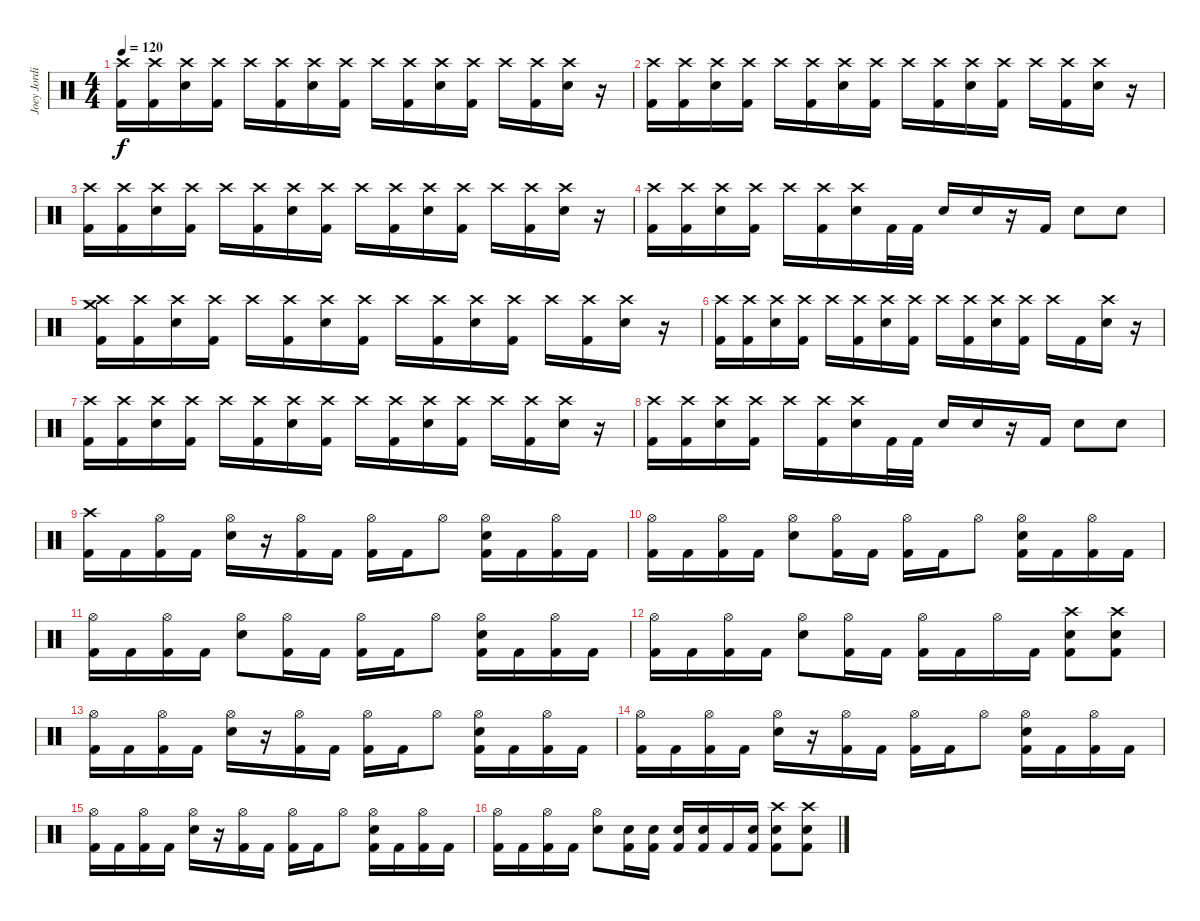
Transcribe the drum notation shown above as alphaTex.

\track ("Joey Jordison   #1" "Joey Jordi") {instrument percussion}
\staff {score}
\articulation defaults
\ts (4 4)
\tempo 120
\clef neutral
\ks c
("Crash high (hit)" "Kick (hit) 2").16{dy f} ("Crash high (hit)" "Kick (hit) 2").16 ("Crash high (hit)" "Electric Snare (hit)").16 ("Crash high (hit)" "Kick (hit) 2").16 "Crash high (hit)".16 ("Crash high (hit)" "Kick (hit) 2").16 ("Crash high (hit)" "Electric Snare (hit)").16 ("Crash high (hit)" "Kick (hit) 2").16 "Crash high (hit)".16 ("Crash high (hit)" "Kick (hit) 2").16 ("Crash high (hit)" "Electric Snare (hit)").16 ("Crash high (hit)" "Kick (hit) 2").16 "Crash high (hit)".16 ("Crash high (hit)" "Kick (hit) 2").16 ("Crash high (hit)" "Electric Snare (hit)").16 r.16 |
("Crash high (hit)" "Kick (hit) 2").16 ("Crash high (hit)" "Kick (hit) 2").16 ("Crash high (hit)" "Electric Snare (hit)").16 ("Crash high (hit)" "Kick (hit) 2").16 "Crash high (hit)".16 ("Crash high (hit)" "Kick (hit) 2").16 ("Crash high (hit)" "Electric Snare (hit)").16 ("Crash high (hit)" "Kick (hit) 2").16 "Crash high (hit)".16 ("Crash high (hit)" "Kick (hit) 2").16 ("Crash high (hit)" "Electric Snare (hit)").16 ("Crash high (hit)" "Kick (hit) 2").16 "Crash high (hit)".16 ("Crash high (hit)" "Kick (hit) 2").16 ("Crash high (hit)" "Electric Snare (hit)").16 r.16 |
("Crash high (hit)" "Kick (hit) 2").16 ("Crash high (hit)" "Kick (hit) 2").16 ("Crash high (hit)" "Electric Snare (hit)").16 ("Crash high (hit)" "Kick (hit) 2").16 "Crash high (hit)".16 ("Crash high (hit)" "Kick (hit) 2").16 ("Crash high (hit)" "Electric Snare (hit)").16 ("Crash high (hit)" "Kick (hit) 2").16 "Crash high (hit)".16 ("Crash high (hit)" "Kick (hit) 2").16 ("Crash high (hit)" "Electric Snare (hit)").16 ("Crash high (hit)" "Kick (hit) 2").16 "Crash high (hit)".16 ("Crash high (hit)" "Kick (hit) 2").16 ("Crash high (hit)" "Electric Snare (hit)").16 r.16 |
("Crash high (hit)" "Kick (hit) 2").16 ("Crash high (hit)" "Kick (hit) 2").16 ("Crash high (hit)" "Electric Snare (hit)").16 ("Crash high (hit)" "Kick (hit) 2").16 "Crash high (hit)".16 ("Crash high (hit)" "Kick (hit) 2").16 ("Crash high (hit)" "Electric Snare (hit)").16 "Kick (hit) 2".32 "Kick (hit) 2".32 "Electric Snare (hit)".16 "Electric Snare (hit)".16 r.16 "Kick (hit) 2".16 "Electric Snare (hit)".8 "Electric Snare (hit)".8 |
("Crash high (hit)" "Crash medium (hit)" "Kick (hit) 2").16 ("Crash high (hit)" "Kick (hit) 2").16 ("Crash high (hit)" "Electric Snare (hit)").16 ("Crash high (hit)" "Kick (hit) 2").16 "Crash high (hit)".16 ("Crash high (hit)" "Kick (hit) 2").16 ("Crash high (hit)" "Electric Snare (hit)").16 ("Crash high (hit)" "Kick (hit) 2").16 "Crash high (hit)".16 ("Crash high (hit)" "Kick (hit) 2").16 ("Crash high (hit)" "Electric Snare (hit)").16 ("Crash high (hit)" "Kick (hit) 2").16 "Crash high (hit)".16 ("Crash high (hit)" "Kick (hit) 2").16 ("Crash high (hit)" "Electric Snare (hit)").16 r.16 |
("Crash high (hit)" "Kick (hit) 2").16 ("Crash high (hit)" "Kick (hit) 2").16 ("Crash high (hit)" "Electric Snare (hit)").16 ("Crash high (hit)" "Kick (hit) 2").16 "Crash high (hit)".16 ("Crash high (hit)" "Kick (hit) 2").16 ("Crash high (hit)" "Electric Snare (hit)").16 ("Crash high (hit)" "Kick (hit) 2").16 "Crash high (hit)".16 ("Crash high (hit)" "Kick (hit) 2").16 ("Crash high (hit)" "Electric Snare (hit)").16 ("Crash high (hit)" "Kick (hit) 2").16 "Crash high (hit)".16 "Kick (hit) 2".16 ("Crash high (hit)" "Electric Snare (hit)").16 r.16 |
("Crash high (hit)" "Kick (hit) 2").16 ("Crash high (hit)" "Kick (hit) 2").16 ("Crash high (hit)" "Electric Snare (hit)").16 ("Crash high (hit)" "Kick (hit) 2").16 "Crash high (hit)".16 ("Crash high (hit)" "Kick (hit) 2").16 ("Crash high (hit)" "Electric Snare (hit)").16 ("Crash high (hit)" "Kick (hit) 2").16 "Crash high (hit)".16 ("Crash high (hit)" "Kick (hit) 2").16 ("Crash high (hit)" "Electric Snare (hit)").16 ("Crash high (hit)" "Kick (hit) 2").16 "Crash high (hit)".16 ("Crash high (hit)" "Kick (hit) 2").16 ("Crash high (hit)" "Electric Snare (hit)").16 r.16 |
("Crash high (hit)" "Kick (hit) 2").16 ("Crash high (hit)" "Kick (hit) 2").16 ("Crash high (hit)" "Electric Snare (hit)").16 ("Crash high (hit)" "Kick (hit) 2").16 "Crash high (hit)".16 ("Crash high (hit)" "Kick (hit) 2").16 ("Crash high (hit)" "Electric Snare (hit)").16 "Kick (hit) 2".32 "Kick (hit) 2".32 "Electric Snare (hit)".16 "Electric Snare (hit)".16 r.16 "Kick (hit) 2".16 "Electric Snare (hit)".8 "Electric Snare (hit)".8 |
("Crash high (hit)" "Kick (hit) 2").16 "Kick (hit) 2".16 ("Hi-Hat (open)" "Kick (hit) 2").16 "Kick (hit) 2".16 ("Hi-Hat (open)" "Electric Snare (hit)").16 r.16 ("Hi-Hat (open)" "Kick (hit) 2").16 "Kick (hit) 2".16 ("Hi-Hat (open)" "Kick (hit) 2").16 "Kick (hit) 2".16 "Hi-Hat (open)".8 ("Hi-Hat (open)" "Electric Snare (hit)" "Kick (hit) 2").16 "Kick (hit) 2".16 ("Hi-Hat (open)" "Kick (hit) 2").16 "Kick (hit) 2".16 |
("Hi-Hat (open)" "Kick (hit) 2").16 "Kick (hit) 2".16 ("Hi-Hat (open)" "Kick (hit) 2").16 "Kick (hit) 2".16 ("Hi-Hat (open)" "Electric Snare (hit)").8 ("Hi-Hat (open)" "Kick (hit) 2").16 "Kick (hit) 2".16 ("Hi-Hat (open)" "Kick (hit) 2").16 "Kick (hit) 2".16 "Hi-Hat (open)".8 ("Hi-Hat (open)" "Electric Snare (hit)" "Kick (hit) 2").16 "Kick (hit) 2".16 ("Hi-Hat (open)" "Kick (hit) 2").16 "Kick (hit) 2".16 |
("Hi-Hat (open)" "Kick (hit) 2").16 "Kick (hit) 2".16 ("Hi-Hat (open)" "Kick (hit) 2").16 "Kick (hit) 2".16 ("Hi-Hat (open)" "Electric Snare (hit)").8 ("Hi-Hat (open)" "Kick (hit) 2").16 "Kick (hit) 2".16 ("Hi-Hat (open)" "Kick (hit) 2").16 "Kick (hit) 2".16 "Hi-Hat (open)".8 ("Hi-Hat (open)" "Electric Snare (hit)" "Kick (hit) 2").16 "Kick (hit) 2".16 ("Hi-Hat (open)" "Kick (hit) 2").16 "Kick (hit) 2".16 |
("Hi-Hat (open)" "Kick (hit) 2").16 "Kick (hit) 2".16 ("Hi-Hat (open)" "Kick (hit) 2").16 "Kick (hit) 2".16 ("Hi-Hat (open)" "Electric Snare (hit)").8 ("Hi-Hat (open)" "Kick (hit) 2").16 "Kick (hit) 2".16 ("Hi-Hat (open)" "Kick (hit) 2").16 "Kick (hit) 2".16 "Hi-Hat (open)".16 "Kick (hit) 2".16 ("Electric Snare (hit)" "Crash high (hit)" "Kick (hit) 2").8 ("Electric Snare (hit)" "Crash high (hit)" "Kick (hit) 2").8 |
("Hi-Hat (open)" "Kick (hit) 2").16 "Kick (hit) 2".16 ("Hi-Hat (open)" "Kick (hit) 2").16 "Kick (hit) 2".16 ("Hi-Hat (open)" "Electric Snare (hit)").16 r.16 ("Hi-Hat (open)" "Kick (hit) 2").16 "Kick (hit) 2".16 ("Hi-Hat (open)" "Kick (hit) 2").16 "Kick (hit) 2".16 "Hi-Hat (open)".8 ("Hi-Hat (open)" "Electric Snare (hit)" "Kick (hit) 2").16 "Kick (hit) 2".16 ("Hi-Hat (open)" "Kick (hit) 2").16 "Kick (hit) 2".16 |
("Hi-Hat (open)" "Kick (hit) 2").16 "Kick (hit) 2".16 ("Hi-Hat (open)" "Kick (hit) 2").16 "Kick (hit) 2".16 ("Hi-Hat (open)" "Electric Snare (hit)").16 r.16 ("Hi-Hat (open)" "Kick (hit) 2").16 "Kick (hit) 2".16 ("Hi-Hat (open)" "Kick (hit) 2").16 "Kick (hit) 2".16 "Hi-Hat (open)".8 ("Hi-Hat (open)" "Electric Snare (hit)" "Kick (hit) 2").16 "Kick (hit) 2".16 ("Hi-Hat (open)" "Kick (hit) 2").16 "Kick (hit) 2".16 |
("Hi-Hat (open)" "Kick (hit) 2").16 "Kick (hit) 2".16 ("Hi-Hat (open)" "Kick (hit) 2").16 "Kick (hit) 2".16 ("Hi-Hat (open)" "Electric Snare (hit)").16 r.16 ("Hi-Hat (open)" "Kick (hit) 2").16 "Kick (hit) 2".16 ("Hi-Hat (open)" "Kick (hit) 2").16 "Kick (hit) 2".16 "Hi-Hat (open)".8 ("Hi-Hat (open)" "Electric Snare (hit)" "Kick (hit) 2").16 "Kick (hit) 2".16 ("Hi-Hat (open)" "Kick (hit) 2").16 "Kick (hit) 2".16 |
("Hi-Hat (open)" "Kick (hit) 2").16 "Kick (hit) 2".16 ("Hi-Hat (open)" "Kick (hit) 2").16 "Kick (hit) 2".16 ("Hi-Hat (open)" "Electric Snare (hit)").8 ("Electric Snare (hit)" "Kick (hit) 2").16 ("Electric Snare (hit)" "Kick (hit) 2").16 ("Electric Snare (hit)" "Kick (hit) 2").16 ("Electric Snare (hit)" "Kick (hit) 2").16 "Kick (hit) 2".16 ("Electric Snare (hit)" "Kick (hit) 2").16 ("Electric Snare (hit)" "Crash high (hit)" "Kick (hit) 2").8 ("Electric Snare (hit)" "Crash high (hit)" "Kick (hit) 2").8
